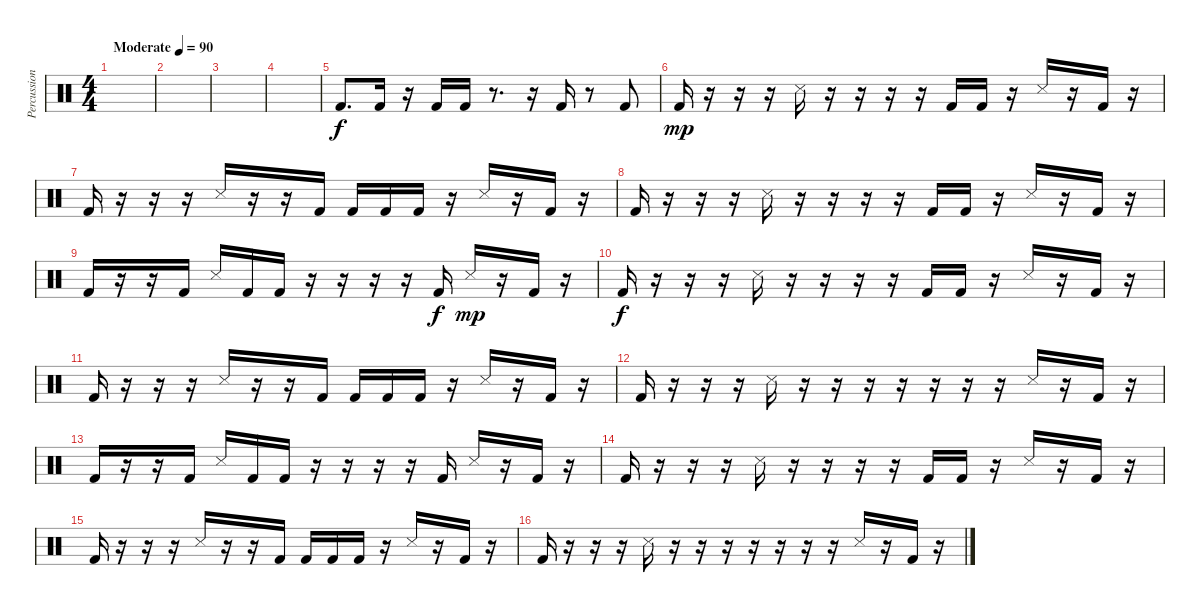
\track ("Percussion" "Percussion") {instrument percussion}
\staff {score}
\articulation defaults
\ts (4 4)
\tempo (90 "Moderate")
\clef neutral
\ks c
|
|
|
|
"Kick (hit) 2".8{d} "Kick (hit) 2".16 r.16 "Kick (hit) 2".16 "Kick (hit) 2".16 r.8{d} r.16 "Kick (hit) 2".16 r.8 "Kick (hit) 2".8 |
"Kick (hit) 2".16{dy mp} r.16 r.16 r.16 "Snare (side stick) 3".16 r.16 r.16 r.16 r.16 "Kick (hit) 2".16 "Kick (hit) 2".16 r.16 "Snare (side stick) 3".16 r.16 "Kick (hit) 2".16 r.16 |
"Kick (hit) 2".16 r.16 r.16 r.16 "Snare (side stick) 3".16 r.16 r.16 "Kick (hit) 2".16 "Kick (hit) 2".16 "Kick (hit) 2".16 "Kick (hit) 2".16 r.16 "Snare (side stick) 3".16 r.16 "Kick (hit) 2".16 r.16 |
"Kick (hit) 2".16 r.16 r.16 r.16 "Snare (side stick) 3".16 r.16 r.16 r.16 r.16 "Kick (hit) 2".16 "Kick (hit) 2".16 r.16 "Snare (side stick) 3".16 r.16 "Kick (hit) 2".16 r.16 |
"Kick (hit) 2".16 r.16 r.16 "Kick (hit) 2".16 "Snare (side stick) 3".16 "Kick (hit) 2".16 "Kick (hit) 2".16 r.16 r.16 r.16 r.16 "Kick (hit) 2".16{dy f} "Snare (side stick) 3".16{dy mp} r.16 "Kick (hit) 2".16 r.16 |
"Kick (hit) 2".16{dy f} r.16 r.16 r.16 "Snare (side stick) 3".16 r.16 r.16 r.16 r.16 "Kick (hit) 2".16 "Kick (hit) 2".16 r.16 "Snare (side stick) 3".16 r.16 "Kick (hit) 2".16 r.16 |
"Kick (hit) 2".16 r.16 r.16 r.16 "Snare (side stick) 3".16 r.16 r.16 "Kick (hit) 2".16 "Kick (hit) 2".16 "Kick (hit) 2".16 "Kick (hit) 2".16 r.16 "Snare (side stick) 3".16 r.16 "Kick (hit) 2".16 r.16 |
"Kick (hit) 2".16 r.16 r.16 r.16 "Snare (side stick) 3".16 r.16 r.16 r.16 r.16 r.16 r.16 r.16 "Snare (side stick) 3".16 r.16 "Kick (hit) 2".16 r.16 |
"Kick (hit) 2".16 r.16 r.16 "Kick (hit) 2".16 "Snare (side stick) 3".16 "Kick (hit) 2".16 "Kick (hit) 2".16 r.16 r.16 r.16 r.16 "Kick (hit) 2".16 "Snare (side stick) 3".16 r.16 "Kick (hit) 2".16 r.16 |
"Kick (hit) 2".16 r.16 r.16 r.16 "Snare (side stick) 3".16 r.16 r.16 r.16 r.16 "Kick (hit) 2".16 "Kick (hit) 2".16 r.16 "Snare (side stick) 3".16 r.16 "Kick (hit) 2".16 r.16 |
"Kick (hit) 2".16 r.16 r.16 r.16 "Snare (side stick) 3".16 r.16 r.16 "Kick (hit) 2".16 "Kick (hit) 2".16 "Kick (hit) 2".16 "Kick (hit) 2".16 r.16 "Snare (side stick) 3".16 r.16 "Kick (hit) 2".16 r.16 |
"Kick (hit) 2".16 r.16 r.16 r.16 "Snare (side stick) 3".16 r.16 r.16 r.16 r.16 r.16 r.16 r.16 "Snare (side stick) 3".16 r.16 "Kick (hit) 2".16 r.16
